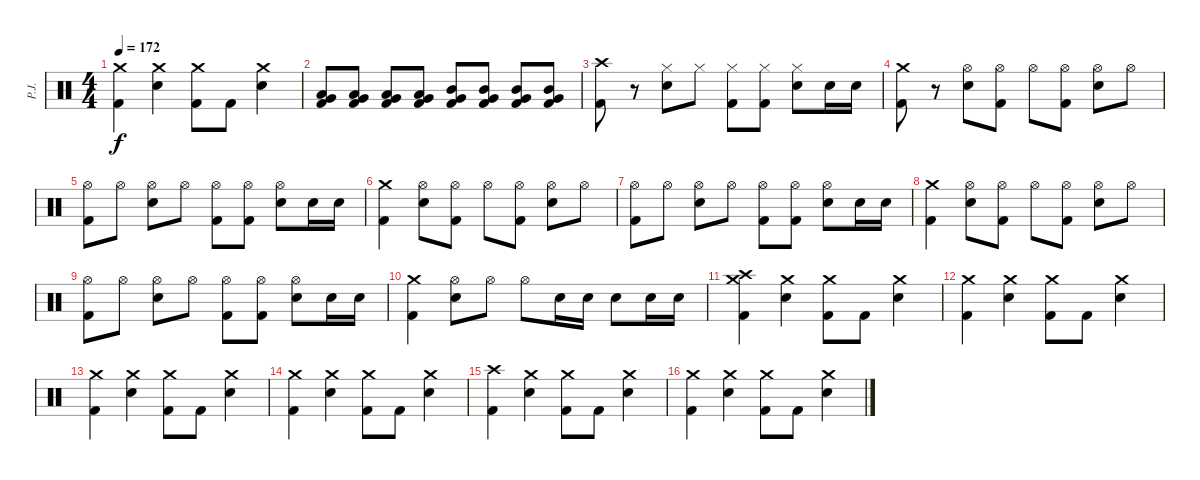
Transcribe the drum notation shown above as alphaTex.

\track ("P.J." "P.J.") {instrument percussion}
\staff {score}
\articulation defaults
\ts (4 4)
\tempo 172
\clef neutral
\ks c
("Crash medium (hit)" "Kick (hit) 2").4{dy f} ("Crash medium (hit)" "Electric Snare (hit)").4 ("Crash medium (hit)" "Kick (hit) 2").8 "Kick (hit) 2".8 ("Crash medium (hit)" "Electric Snare (hit)").4 |
("Low Tom (hit)" "Very Low Tom (hit)" "Kick (hit) 2").8 ("Low Tom (hit)" "Very Low Tom (hit)" "Kick (hit) 2").8 ("Low Tom (hit)" "Very Low Tom (hit)" "Kick (hit) 2").8 ("Low Tom (hit)" "Very Low Tom (hit)" "Kick (hit) 2").8 ("Mid Tom (hit)" "Very Low Tom (hit)" "Kick (hit) 2").8 ("Mid Tom (hit)" "Very Low Tom (hit)" "Kick (hit) 2").8 ("Mid Tom (hit)" "Very Low Tom (hit)" "Kick (hit) 2").8 ("Mid Tom (hit)" "Very Low Tom (hit)" "Kick (hit) 2").8 |
("Crash high (hit)" "Kick (hit) 2").8 r.8 ("Hi-Hat (closed)" "Electric Snare (hit)").8 "Hi-Hat (closed)".8 ("Hi-Hat (closed)" "Kick (hit) 2").8 ("Hi-Hat (closed)" "Kick (hit) 2").8 ("Hi-Hat (closed)" "Electric Snare (hit)").8 "Electric Snare (hit)".16 "Electric Snare (hit)".16 |
("Crash medium (hit)" "Kick (hit) 2").8 r.8 ("Hi-Hat (open)" "Electric Snare (hit)").8 ("Hi-Hat (open)" "Kick (hit) 2").8 "Hi-Hat (open)".8 ("Hi-Hat (open)" "Kick (hit) 2").8 ("Hi-Hat (open)" "Electric Snare (hit)").8 "Hi-Hat (open)".8 |
("Hi-Hat (open)" "Kick (hit) 2").8 "Hi-Hat (open)".8 ("Hi-Hat (open)" "Electric Snare (hit)").8 "Hi-Hat (open)".8 ("Hi-Hat (open)" "Kick (hit) 2").8 ("Hi-Hat (open)" "Kick (hit) 2").8 ("Hi-Hat (open)" "Electric Snare (hit)").8 "Electric Snare (hit)".16 "Electric Snare (hit)".16 |
("Crash medium (hit)" "Kick (hit) 2").4 ("Hi-Hat (open)" "Electric Snare (hit)").8 ("Hi-Hat (open)" "Kick (hit) 2").8 "Hi-Hat (open)".8 ("Hi-Hat (open)" "Kick (hit) 2").8 ("Hi-Hat (open)" "Electric Snare (hit)").8 "Hi-Hat (open)".8 |
("Hi-Hat (open)" "Kick (hit) 2").8 "Hi-Hat (open)".8 ("Hi-Hat (open)" "Electric Snare (hit)").8 "Hi-Hat (open)".8 ("Hi-Hat (open)" "Kick (hit) 2").8 ("Hi-Hat (open)" "Kick (hit) 2").8 ("Hi-Hat (open)" "Electric Snare (hit)").8 "Electric Snare (hit)".16 "Electric Snare (hit)".16 |
("Crash medium (hit)" "Kick (hit) 2").4 ("Hi-Hat (open)" "Electric Snare (hit)").8 ("Hi-Hat (open)" "Kick (hit) 2").8 "Hi-Hat (open)".8 ("Hi-Hat (open)" "Kick (hit) 2").8 ("Hi-Hat (open)" "Electric Snare (hit)").8 "Hi-Hat (open)".8 |
("Hi-Hat (open)" "Kick (hit) 2").8 "Hi-Hat (open)".8 ("Hi-Hat (open)" "Electric Snare (hit)").8 "Hi-Hat (open)".8 ("Hi-Hat (open)" "Kick (hit) 2").8 ("Hi-Hat (open)" "Kick (hit) 2").8 ("Hi-Hat (open)" "Electric Snare (hit)").8 "Electric Snare (hit)".16 "Electric Snare (hit)".16 |
("Crash medium (hit)" "Kick (hit) 2").4 ("Hi-Hat (open)" "Electric Snare (hit)").8 "Hi-Hat (open)".8 "Hi-Hat (open)".8 "Electric Snare (hit)".16 "Electric Snare (hit)".16 "Electric Snare (hit)".8 "Electric Snare (hit)".16 "Electric Snare (hit)".16 |
("Crash high (hit)" "Crash medium (hit)" "Kick (hit) 2").4 ("Crash medium (hit)" "Electric Snare (hit)").4 ("Crash medium (hit)" "Kick (hit) 2").8 "Kick (hit) 2".8 ("Crash medium (hit)" "Electric Snare (hit)").4 |
("Crash medium (hit)" "Kick (hit) 2").4 ("Crash medium (hit)" "Electric Snare (hit)").4 ("Crash medium (hit)" "Kick (hit) 2").8 "Kick (hit) 2".8 ("Crash medium (hit)" "Electric Snare (hit)").4 |
("Crash medium (hit)" "Kick (hit) 2").4 ("Crash medium (hit)" "Electric Snare (hit)").4 ("Crash medium (hit)" "Kick (hit) 2").8 "Kick (hit) 2".8 ("Crash medium (hit)" "Electric Snare (hit)").4 |
("Crash medium (hit)" "Kick (hit) 2").4 ("Crash medium (hit)" "Electric Snare (hit)").4 ("Crash medium (hit)" "Kick (hit) 2").8 "Kick (hit) 2".8 ("Crash medium (hit)" "Electric Snare (hit)").4 |
("Crash high (hit)" "Kick (hit) 2").4 ("Crash medium (hit)" "Electric Snare (hit)").4 ("Crash medium (hit)" "Kick (hit) 2").8 "Kick (hit) 2".8 ("Crash medium (hit)" "Electric Snare (hit)").4 |
("Crash medium (hit)" "Kick (hit) 2").4 ("Crash medium (hit)" "Electric Snare (hit)").4 ("Crash medium (hit)" "Kick (hit) 2").8 "Kick (hit) 2".8 ("Crash medium (hit)" "Electric Snare (hit)").4
